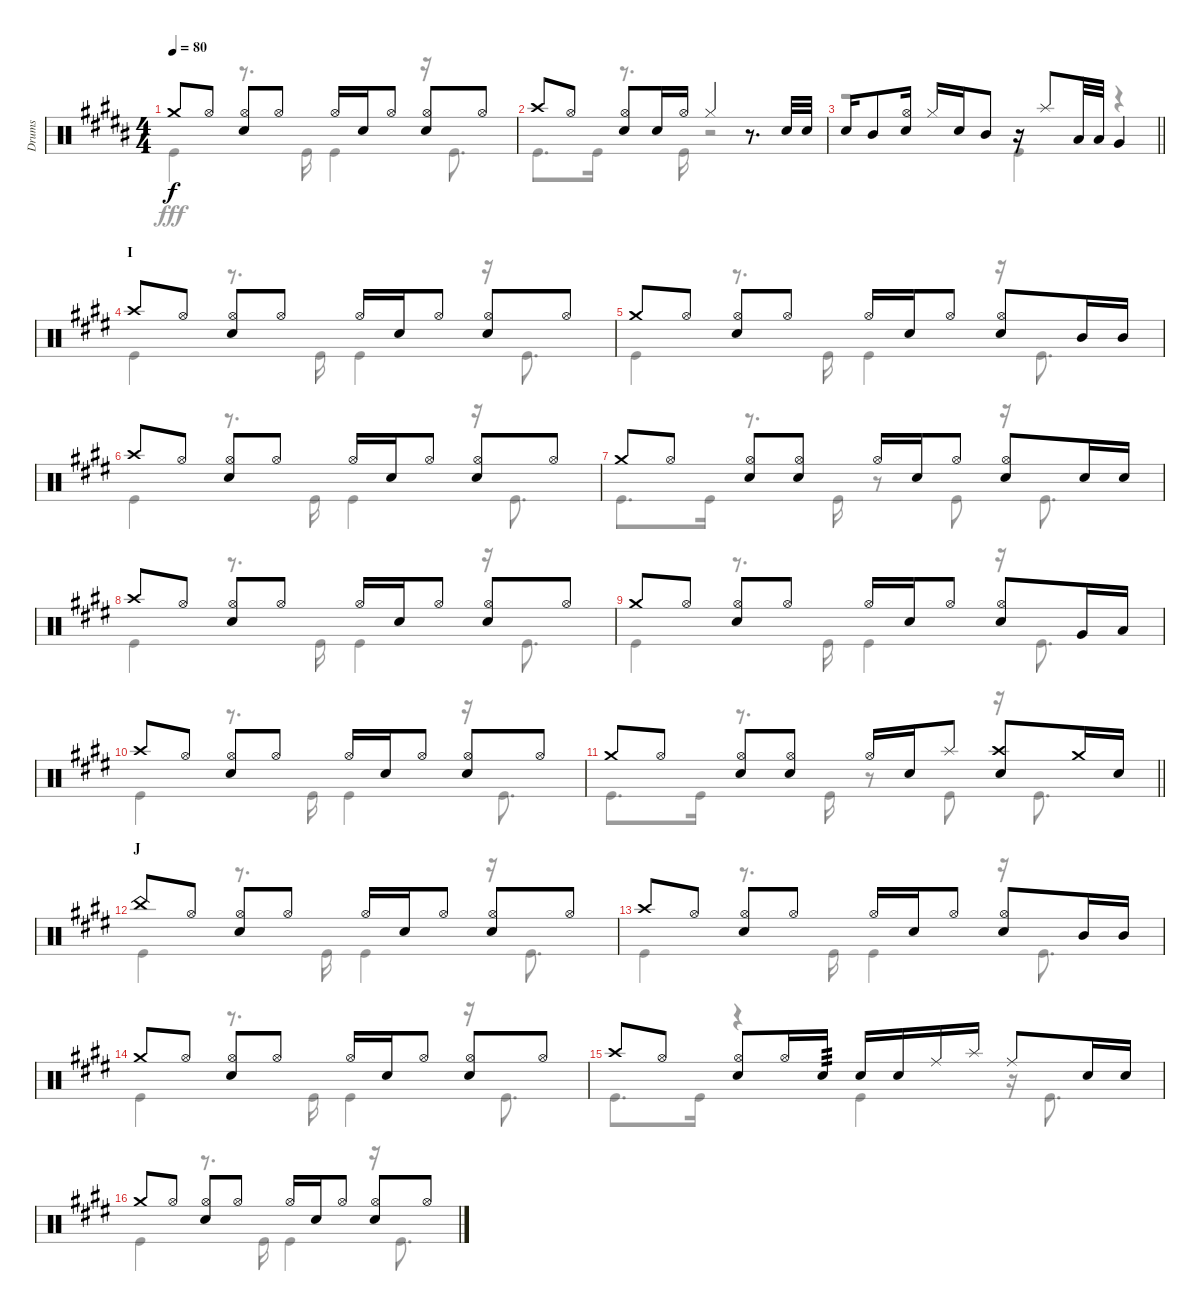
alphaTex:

\track ("Drums" "Drums") {instrument percussion}
\staff {score}
\articulation defaults
\voice
\ts (4 4)
\tempo 80
\clef neutral
\ks b "Crash medium (hit)".8{dy f} "Hi-Hat (open)".8
("Hi-Hat (open)" "Snare (hit) 2").8 "Hi-Hat (open)".8 "Hi-Hat (open)".16 "Snare (hit) 2".16 "Hi-Hat (open)".8 ("Hi-Hat (open)" "Snare (hit) 2").8 "Hi-Hat (open)".8 |
"Crash high (hit)".8 "Hi-Hat (open)".8 ("Hi-Hat (open)" "Snare (hit) 2").8 "Snare (hit) 2".16 "Hi-Hat (open)".16 "Hi-Hat (closed)".4 r.8{d} "Snare (hit) 2".32 "Snare (hit) 2".32 |
\barLineRight lightlight "Snare (hit) 2".16 "Mid Tom (hit)".8
("Hi-Hat (open)" "Snare (hit) 2").16 "Hi-Hat (closed)".16 "Snare (hit) 2".16 "Mid Tom (hit)".8 r.16 "Splash (hit)".8 "Low Tom (hit)".32 "Low Tom (hit)".32 "Very Low Tom (hit)".4 |
\section ("" "I")
\ks e "Crash high (hit)".8 "Hi-Hat (open)".8
("Hi-Hat (open)" "Snare (hit) 2").8 "Hi-Hat (open)".8 "Hi-Hat (open)".16 "Snare (hit) 2".16 "Hi-Hat (open)".8 ("Hi-Hat (open)" "Snare (hit) 2").8 "Hi-Hat (open)".8 |
"Crash medium (hit)".8 "Hi-Hat (open)".8 ("Hi-Hat (open)" "Snare (hit) 2").8 "Hi-Hat (open)".8 "Hi-Hat (open)".16 "Snare (hit) 2".16 "Hi-Hat (open)".8 ("Hi-Hat (open)" "Snare (hit) 2").8 "Mid Tom (hit)".16 "Mid Tom (hit)".16 |
"Crash high (hit)".8 "Hi-Hat (open)".8 ("Hi-Hat (open)" "Snare (hit) 2").8 "Hi-Hat (open)".8 "Hi-Hat (open)".16 "Snare (hit) 2".16 "Hi-Hat (open)".8 ("Hi-Hat (open)" "Snare (hit) 2").8 "Hi-Hat (open)".8 |
"Crash medium (hit)".8 "Hi-Hat (open)".8 ("Hi-Hat (open)" "Snare (hit) 2").8 ("Hi-Hat (open)" "Snare (hit) 2").8 "Hi-Hat (open)".16 "Snare (hit) 2".16 "Hi-Hat (open)".8 ("Hi-Hat (open)" "Snare (hit) 2").8 "Snare (hit) 2".16 "Snare (hit) 2".16 |
"Crash high (hit)".8 "Hi-Hat (open)".8 ("Hi-Hat (open)" "Snare (hit) 2").8 "Hi-Hat (open)".8 "Hi-Hat (open)".16 "Snare (hit) 2".16 "Hi-Hat (open)".8 ("Hi-Hat (open)" "Snare (hit) 2").8 "Hi-Hat (open)".8 |
"Crash medium (hit)".8 "Hi-Hat (open)".8 ("Hi-Hat (open)" "Snare (hit) 2").8 "Hi-Hat (open)".8 "Hi-Hat (open)".16 "Snare (hit) 2".16 "Hi-Hat (open)".8 ("Hi-Hat (open)" "Snare (hit) 2").8 "Very Low Tom (hit)".16 "Low Tom (hit)".16 |
"Crash high (hit)".8 "Hi-Hat (open)".8 ("Hi-Hat (open)" "Snare (hit) 2").8 "Hi-Hat (open)".8 "Hi-Hat (open)".16 "Snare (hit) 2".16 "Hi-Hat (open)".8 ("Hi-Hat (open)" "Snare (hit) 2").8 "Hi-Hat (open)".8 |
\barLineRight lightlight "Crash medium (hit)".8 "Hi-Hat (open)".8
("Hi-Hat (open)" "Snare (hit) 2").8 ("Hi-Hat (open)" "Snare (hit) 2").8 "Hi-Hat (open)".16 "Snare (hit) 2".16 "Splash (hit)".8 ("Crash high (hit)" "Snare (hit) 2").8 "Crash medium (hit)".16 "Snare (hit) 2".16 |
\section ("" "J")
"China (hit)".8 "Hi-Hat (open)".8 ("Hi-Hat (open)" "Snare (hit) 2").8 "Hi-Hat (open)".8 "Hi-Hat (open)".16 "Snare (hit) 2".16 "Hi-Hat (open)".8 ("Hi-Hat (open)" "Snare (hit) 2").8 "Hi-Hat (open)".8 |
"Crash high (hit)".8 "Hi-Hat (open)".8 ("Hi-Hat (open)" "Snare (hit) 2").8 "Hi-Hat (open)".8 "Hi-Hat (open)".16 "Snare (hit) 2".16 "Hi-Hat (open)".8 ("Hi-Hat (open)" "Snare (hit) 2").8 "Mid Tom (hit)".16 "Mid Tom (hit)".16 |
"Crash medium (hit)".8 "Hi-Hat (open)".8 ("Hi-Hat (open)" "Snare (hit) 2").8 "Hi-Hat (open)".8 "Hi-Hat (open)".16 "Snare (hit) 2".16 "Hi-Hat (open)".8 ("Hi-Hat (open)" "Snare (hit) 2").8 "Hi-Hat (open)".8 |
"Crash high (hit)".8 "Hi-Hat (open)".8 ("Hi-Hat (open)" "Snare (hit) 2").8 "Hi-Hat (open)".16 "Snare (hit) 2".16{tp 3} "Snare (hit) 2".16 "Snare (hit) 2".16 "Ride (middle)".16 "Splash (hit)".16 "Ride (middle)".8 "Snare (hit) 2".16 "Snare (hit) 2".16 |
"Crash medium (hit)".8 "Hi-Hat (open)".8 ("Hi-Hat (open)" "Snare (hit) 2").8 "Hi-Hat (open)".8 "Hi-Hat (open)".16 "Snare (hit) 2".16 "Hi-Hat (open)".8 ("Hi-Hat (open)" "Snare (hit) 2").8 "Hi-Hat (open)".8
\voice
\clef neutral
\ottava regular
\simile none
\ks b "Kick (hit)".4{dy fff}
r.8{d} "Kick (hit)".16 "Kick (hit)".4 r.16 "Kick (hit)".8{d} |
"Kick (hit)".8{d} "Kick (hit)".16 r.8{d} "Kick (hit)".16 r.2 |
\barLineRight lightlight
r.2 "Kick (hit)".4 r.4 |
\ks e "Kick (hit)".4
r.8{d} "Kick (hit)".16 "Kick (hit)".4 r.16 "Kick (hit)".8{d} |
"Kick (hit)".4 r.8{d} "Kick (hit)".16 "Kick (hit)".4 r.16 "Kick (hit)".8{d} |
"Kick (hit)".4 r.8{d} "Kick (hit)".16 "Kick (hit)".4 r.16 "Kick (hit)".8{d} |
"Kick (hit)".8{d} "Kick (hit)".16 r.8{d} "Kick (hit)".16 r.8 "Kick (hit)".8 r.16 "Kick (hit)".8{d} |
"Kick (hit)".4 r.8{d} "Kick (hit)".16 "Kick (hit)".4 r.16 "Kick (hit)".8{d} |
"Kick (hit)".4 r.8{d} "Kick (hit)".16 "Kick (hit)".4 r.16 "Kick (hit)".8{d} |
"Kick (hit)".4 r.8{d} "Kick (hit)".16 "Kick (hit)".4 r.16 "Kick (hit)".8{d} |
\barLineRight lightlight "Kick (hit)".8{d} "Kick (hit)".16
r.8{d} "Kick (hit)".16 r.8 "Kick (hit)".8 r.16 "Kick (hit)".8{d} |
"Kick (hit)".4 r.8{d} "Kick (hit)".16 "Kick (hit)".4 r.16 "Kick (hit)".8{d} |
"Kick (hit)".4 r.8{d} "Kick (hit)".16 "Kick (hit)".4 r.16 "Kick (hit)".8{d} |
"Kick (hit)".4 r.8{d} "Kick (hit)".16 "Kick (hit)".4 r.16 "Kick (hit)".8{d} |
"Kick (hit)".8{d} "Kick (hit)".16 r.4 "Kick (hit)".4 r.16 "Kick (hit)".8{d} |
"Kick (hit)".4 r.8{d} "Kick (hit)".16 "Kick (hit)".4 r.16 "Kick (hit)".8{d}
